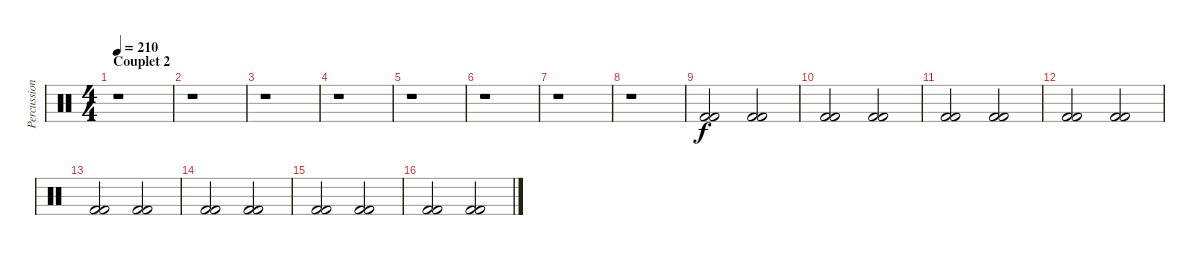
\track ("Percussions" "Percussion") {instrument percussion}
\staff {score}
\articulation defaults
\ts (4 4)
\section ("" "Couplet 2")
\tempo 210
\clef neutral
\ks c
r.1{dy f} |
r.1 |
r.1 |
r.1 |
r.1 |
r.1 |
r.1 |
r.1 |
\section ("" "")
("Kick (hit) 2" "Kick (hit) 2").2 ("Kick (hit) 2" "Kick (hit) 2").2 |
("Kick (hit) 2" "Kick (hit) 2").2 ("Kick (hit) 2" "Kick (hit) 2").2 |
("Kick (hit) 2" "Kick (hit) 2").2 ("Kick (hit) 2" "Kick (hit) 2").2 |
("Kick (hit) 2" "Kick (hit) 2").2 ("Kick (hit) 2" "Kick (hit) 2").2 |
("Kick (hit) 2" "Kick (hit) 2").2 ("Kick (hit) 2" "Kick (hit) 2").2 |
("Kick (hit) 2" "Kick (hit) 2").2 ("Kick (hit) 2" "Kick (hit) 2").2 |
("Kick (hit) 2" "Kick (hit) 2").2 ("Kick (hit) 2" "Kick (hit) 2").2 |
("Kick (hit) 2" "Kick (hit) 2").2 ("Kick (hit) 2" "Kick (hit) 2").2
